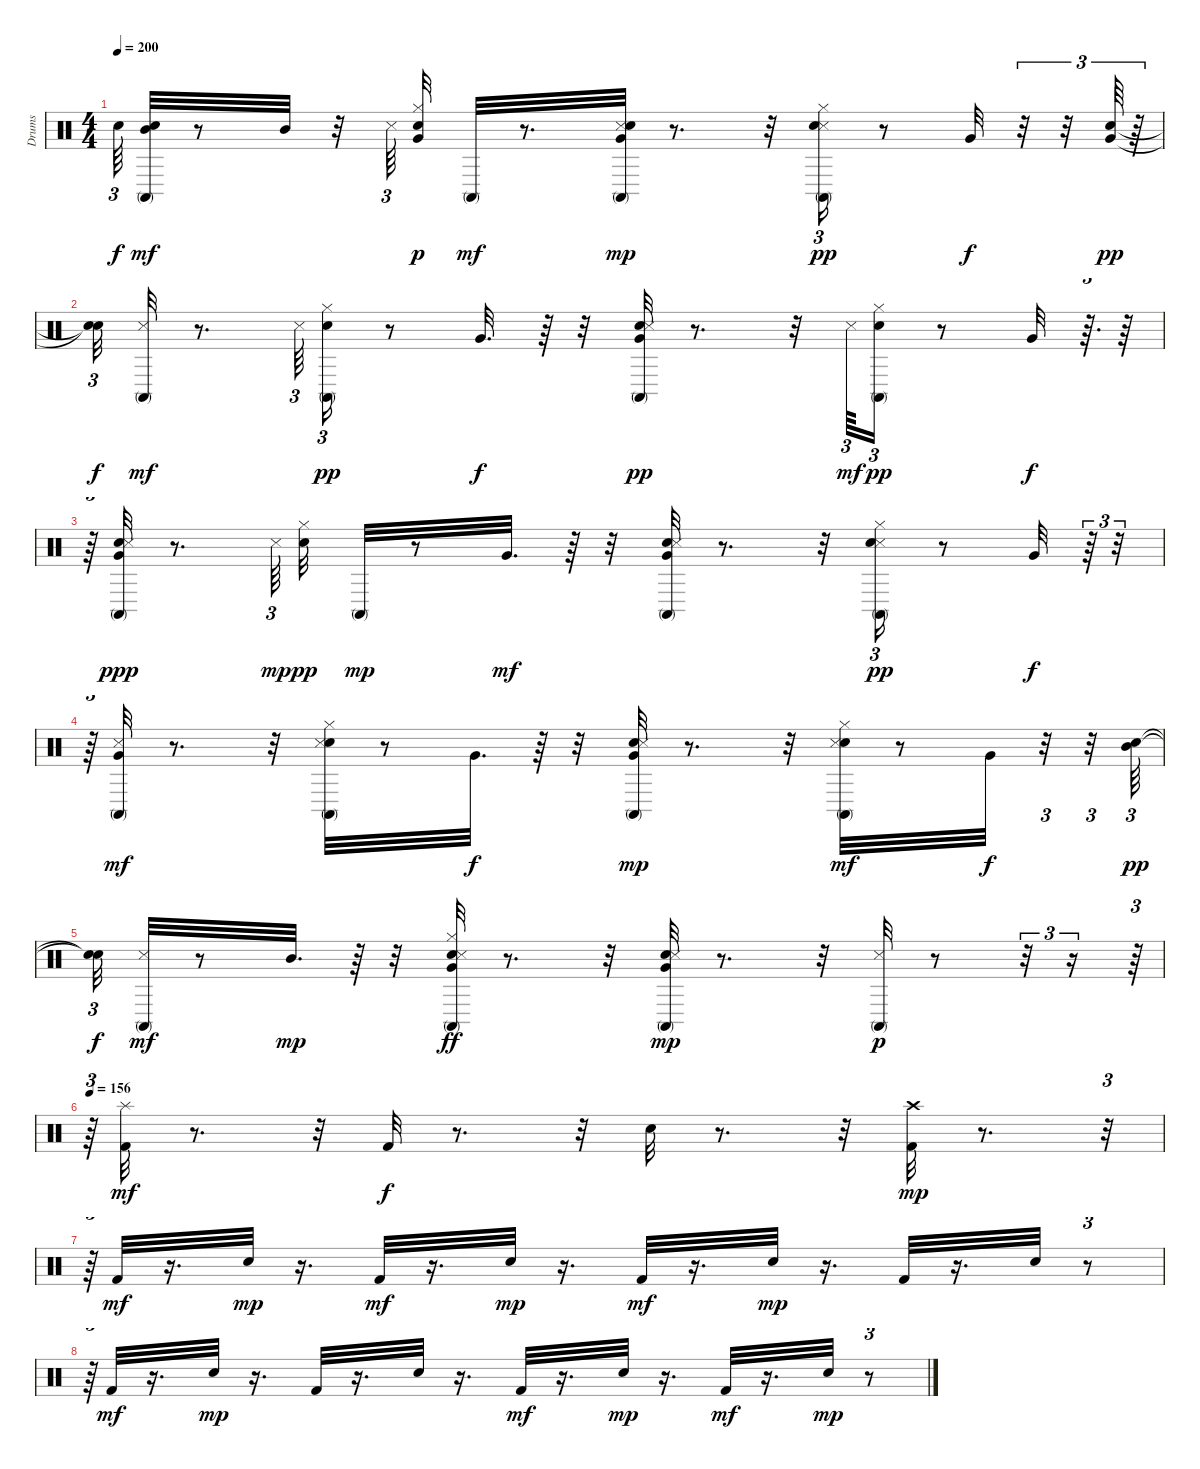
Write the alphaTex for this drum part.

\track ("Drums" "Drums") {instrument percussion}
\staff {score}
\articulation defaults
\ts (4 4)
\tempo 200
\clef neutral
\ks c "Snare (hit)"{t}.64{tu (3 2) dy f}
("Mid Tom (hit)" "Hand Clap (hit)" "Conga high (mute)").32{dy mf} r.8 "Mid Tom (hit)".32 r.32 "Snare (side stick) 3".64{tu (3 2)} ("Hi-Hat (closed)" "Very Low Tom (hit)" "Hand Clap (hit)").32{dy p} "Conga high (mute)".32{dy mf} r.8{d} ("Very Low Tom (hit)" "Conga high (mute)" "Snare (side stick) 3" "Hand Clap (hit)").32{dy mp} r.8{d} r.32 ("Hi-Hat (closed)" "Conga high (mute)" "Snare (side stick) 3" "Hand Clap (hit)").16{tu (3 2) dy pp} r.8 "Very Low Tom (hit)".32{dy f} r.32{tu (3 2)} r.32{tu (3 2)} ("Very Low Tom (hit)" "Hand Clap (hit)").64{tu (3 2) dy pp} r.64{tu (3 2)} |
("Snare (hit)"{t} "Snare (hit)"{t}).32{tu (3 2) dy f} ("Conga high (mute)" "Snare (side stick) 3").32{dy mf} r.8{d} "Snare (side stick) 3".64{tu (3 2)} ("Hi-Hat (closed)" "Conga high (mute)" "Hand Clap (hit)").16{tu (3 2) dy pp} r.8 "Very Low Tom (hit)".32{d dy f} r.64 r.32 ("Very Low Tom (hit)" "Conga high (mute)" "Hand Clap (hit)" "Snare (side stick) 3").32{dy pp} r.8{d} r.32 "Snare (side stick) 3".64{tu (3 2) dy mf} ("Hi-Hat (closed)" "Conga high (mute)" "Hand Clap (hit)").16{tu (3 2) dy pp} r.8 "Very Low Tom (hit)".32{dy f} r.64{d tu (3 2)} r.64 |
r.64{tu (3 2)} ("Very Low Tom (hit)" "Conga high (mute)" "Hand Clap (hit)" "Snare (side stick) 3").32{dy ppp} r.8{d} "Snare (side stick) 3".64{tu (3 2) dy mp} ("Hi-Hat (closed)" "Hand Clap (hit)").32{dy pp} "Conga high (mute)".32{dy mp} r.8 "Very Low Tom (hit)".32{d dy mf} r.64 r.32 ("Very Low Tom (hit)" "Conga high (mute)" "Hand Clap (hit)" "Snare (side stick) 3").32 r.8{d} r.32 ("Hi-Hat (closed)" "Snare (side stick) 3" "Conga high (mute)" "Hand Clap (hit)").16{tu (3 2) dy pp} r.8 "Very Low Tom (hit)".32{dy f} r.64{tu (3 2)} r.32{tu (3 2)} |
r.64{tu (3 2)} ("Very Low Tom (hit)" "Snare (side stick) 3" "Conga high (mute)").32{dy mf} r.8{d} r.32 ("Hi-Hat (closed)" "Hand Clap (hit)" "Conga high (mute)" "Snare (side stick) 3").32 r.8 "Very Low Tom (hit)".32{d dy f} r.64 r.32 ("Very Low Tom (hit)" "Hand Clap (hit)" "Snare (side stick) 3" "Conga high (mute)").32{dy mp} r.8{d} r.32 ("Hi-Hat (closed)" "Hand Clap (hit)" "Snare (side stick) 3" "Conga high (mute)").32{dy mf} r.8 "Very Low Tom (hit)".32{dy f} r.32{tu (3 2)} r.32{tu (3 2)} ("Mid Tom (hit)" "Hand Clap (hit)").64{tu (3 2) dy pp} |
("Snare (hit)"{t} "Snare (hit)"{t}).32{tu (3 2) dy f} ("Conga high (mute)" "Snare (side stick) 3").32{dy mf} r.8 "Mid Tom (hit)".32{d dy mp} r.64 r.32 ("Hi-Hat (closed)" "Very Low Tom (hit)" "Hand Clap (hit)" "Conga high (mute)" "Snare (side stick) 3").32{dy ff} r.8{d} r.32 ("Very Low Tom (hit)" "Hand Clap (hit)" "Conga high (mute)" "Snare (side stick) 3").32{dy mp} r.8{d} r.32 ("Conga high (mute)" "Snare (side stick) 3").32{dy p} r.8 r.32{tu (3 2)} r.16{tu (3 2)} r.64{tu (3 2)} |
\tempo 156
r.64{tu (3 2)} ("Kick (hit) 2" "Splash (hit)").32{dy mf} r.8{d} r.32 "Kick (hit) 2".32{dy f} r.8{d} r.32 "Electric Snare (hit)".32 r.8{d} r.32 ("Crash high (hit)" "Kick (hit) 2").32{dy mp} r.8{d} r.32{tu (3 2)} |
r.64{tu (3 2)} "Kick (hit) 2".32{dy mf} r.16{d} "Electric Snare (hit)".32{dy mp} r.16{d} "Kick (hit) 2".32{dy mf} r.16{d} "Electric Snare (hit)".32{dy mp} r.16{d} "Kick (hit) 2".32{dy mf} r.16{d} "Electric Snare (hit)".32{dy mp} r.16{d} "Kick (hit) 2".32 r.16{d} "Electric Snare (hit)".32 r.8{tu (3 2)} |
r.64{tu (3 2)} "Kick (hit) 2".32{dy mf} r.16{d} "Electric Snare (hit)".32{dy mp} r.16{d} "Kick (hit) 2".32 r.16{d} "Electric Snare (hit)".32 r.16{d} "Kick (hit) 2".32{dy mf} r.16{d} "Electric Snare (hit)".32{dy mp} r.16{d} "Kick (hit) 2".32{dy mf} r.16{d} "Electric Snare (hit)".32{dy mp} r.8{tu (3 2)}
